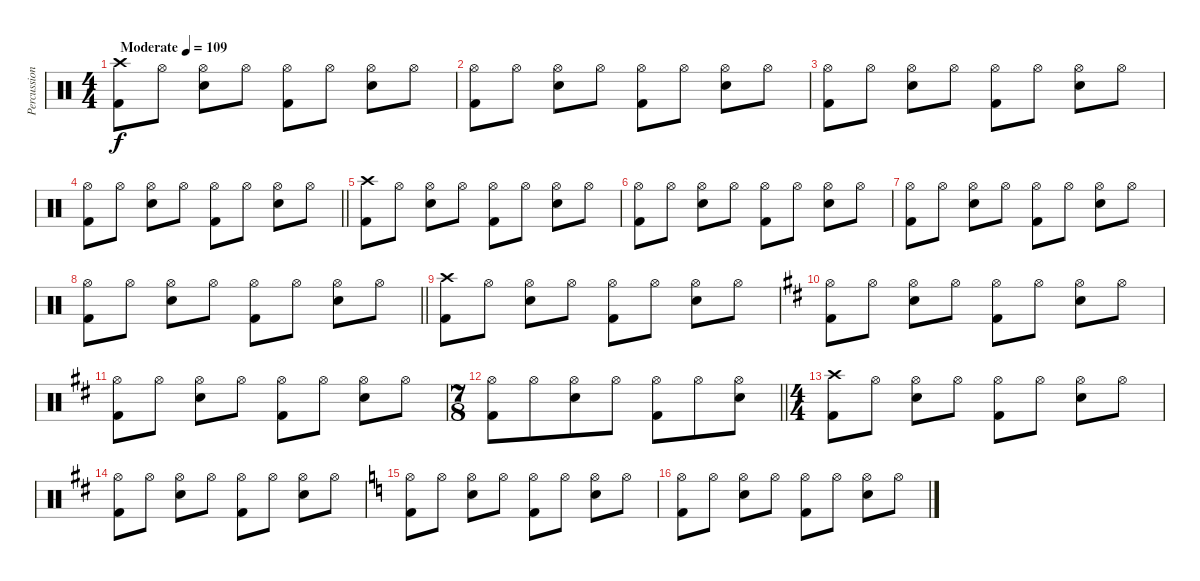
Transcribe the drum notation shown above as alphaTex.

\track ("Percussion" "Percussion") {instrument percussion}
\staff {score}
\articulation defaults
\ts (4 4)
\tempo (109 "Moderate")
\clef neutral
\ks c
("Crash high (hit)" "Kick (hit) 2").8{dy f} "Hi-Hat (open)".8 ("Hi-Hat (open)" "Electric Snare (hit)").8 "Hi-Hat (open)".8 ("Hi-Hat (open)" "Kick (hit) 2").8 "Hi-Hat (open)".8 ("Hi-Hat (open)" "Electric Snare (hit)").8 "Hi-Hat (open)".8 |
("Hi-Hat (open)" "Kick (hit) 2").8 "Hi-Hat (open)".8 ("Hi-Hat (open)" "Electric Snare (hit)").8 "Hi-Hat (open)".8 ("Hi-Hat (open)" "Kick (hit) 2").8 "Hi-Hat (open)".8 ("Hi-Hat (open)" "Electric Snare (hit)").8 "Hi-Hat (open)".8 |
("Hi-Hat (open)" "Kick (hit) 2").8 "Hi-Hat (open)".8 ("Hi-Hat (open)" "Electric Snare (hit)").8 "Hi-Hat (open)".8 ("Hi-Hat (open)" "Kick (hit) 2").8 "Hi-Hat (open)".8 ("Hi-Hat (open)" "Electric Snare (hit)").8 "Hi-Hat (open)".8 |
\barLineRight lightlight
("Hi-Hat (open)" "Kick (hit) 2").8 "Hi-Hat (open)".8 ("Hi-Hat (open)" "Electric Snare (hit)").8 "Hi-Hat (open)".8 ("Hi-Hat (open)" "Kick (hit) 2").8 "Hi-Hat (open)".8 ("Hi-Hat (open)" "Electric Snare (hit)").8 "Hi-Hat (open)".8 |
("Crash high (hit)" "Kick (hit) 2").8 "Hi-Hat (open)".8 ("Hi-Hat (open)" "Electric Snare (hit)").8 "Hi-Hat (open)".8 ("Hi-Hat (open)" "Kick (hit) 2").8 "Hi-Hat (open)".8 ("Hi-Hat (open)" "Electric Snare (hit)").8 "Hi-Hat (open)".8 |
("Hi-Hat (open)" "Kick (hit) 2").8 "Hi-Hat (open)".8 ("Hi-Hat (open)" "Electric Snare (hit)").8 "Hi-Hat (open)".8 ("Hi-Hat (open)" "Kick (hit) 2").8 "Hi-Hat (open)".8 ("Hi-Hat (open)" "Electric Snare (hit)").8 "Hi-Hat (open)".8 |
("Hi-Hat (open)" "Kick (hit) 2").8 "Hi-Hat (open)".8 ("Hi-Hat (open)" "Electric Snare (hit)").8 "Hi-Hat (open)".8 ("Hi-Hat (open)" "Kick (hit) 2").8 "Hi-Hat (open)".8 ("Hi-Hat (open)" "Electric Snare (hit)").8 "Hi-Hat (open)".8 |
\barLineRight lightlight
("Hi-Hat (open)" "Kick (hit) 2").8 "Hi-Hat (open)".8 ("Hi-Hat (open)" "Electric Snare (hit)").8 "Hi-Hat (open)".8 ("Hi-Hat (open)" "Kick (hit) 2").8 "Hi-Hat (open)".8 ("Hi-Hat (open)" "Electric Snare (hit)").8 "Hi-Hat (open)".8 |
("Crash high (hit)" "Kick (hit) 2").8 "Hi-Hat (open)".8 ("Hi-Hat (open)" "Electric Snare (hit)").8 "Hi-Hat (open)".8 ("Hi-Hat (open)" "Kick (hit) 2").8 "Hi-Hat (open)".8 ("Hi-Hat (open)" "Electric Snare (hit)").8 "Hi-Hat (open)".8 |
\ks d
("Hi-Hat (open)" "Kick (hit) 2").8 "Hi-Hat (open)".8 ("Hi-Hat (open)" "Electric Snare (hit)").8 "Hi-Hat (open)".8 ("Hi-Hat (open)" "Kick (hit) 2").8 "Hi-Hat (open)".8 ("Hi-Hat (open)" "Electric Snare (hit)").8 "Hi-Hat (open)".8 |
("Hi-Hat (open)" "Kick (hit) 2").8 "Hi-Hat (open)".8 ("Hi-Hat (open)" "Electric Snare (hit)").8 "Hi-Hat (open)".8 ("Hi-Hat (open)" "Kick (hit) 2").8 "Hi-Hat (open)".8 ("Hi-Hat (open)" "Electric Snare (hit)").8 "Hi-Hat (open)".8 |
\ts (7 8)
\barLineRight lightlight
("Hi-Hat (open)" "Kick (hit) 2").8 "Hi-Hat (open)".8 ("Hi-Hat (open)" "Electric Snare (hit)").8 "Hi-Hat (open)".8 ("Hi-Hat (open)" "Kick (hit) 2").8 "Hi-Hat (open)".8 ("Hi-Hat (open)" "Electric Snare (hit)").8 |
\ts (4 4)
("Crash high (hit)" "Kick (hit) 2").8 "Hi-Hat (open)".8 ("Hi-Hat (open)" "Electric Snare (hit)").8 "Hi-Hat (open)".8 ("Hi-Hat (open)" "Kick (hit) 2").8 "Hi-Hat (open)".8 ("Hi-Hat (open)" "Electric Snare (hit)").8 "Hi-Hat (open)".8 |
("Hi-Hat (open)" "Kick (hit) 2").8 "Hi-Hat (open)".8 ("Hi-Hat (open)" "Electric Snare (hit)").8 "Hi-Hat (open)".8 ("Hi-Hat (open)" "Kick (hit) 2").8 "Hi-Hat (open)".8 ("Hi-Hat (open)" "Electric Snare (hit)").8 "Hi-Hat (open)".8 |
\ks c
("Hi-Hat (open)" "Kick (hit) 2").8 "Hi-Hat (open)".8 ("Hi-Hat (open)" "Electric Snare (hit)").8 "Hi-Hat (open)".8 ("Hi-Hat (open)" "Kick (hit) 2").8 "Hi-Hat (open)".8 ("Hi-Hat (open)" "Electric Snare (hit)").8 "Hi-Hat (open)".8 |
("Hi-Hat (open)" "Kick (hit) 2").8 "Hi-Hat (open)".8 ("Hi-Hat (open)" "Electric Snare (hit)").8 "Hi-Hat (open)".8 ("Hi-Hat (open)" "Kick (hit) 2").8 "Hi-Hat (open)".8 ("Hi-Hat (open)" "Electric Snare (hit)").8 "Hi-Hat (open)".8
